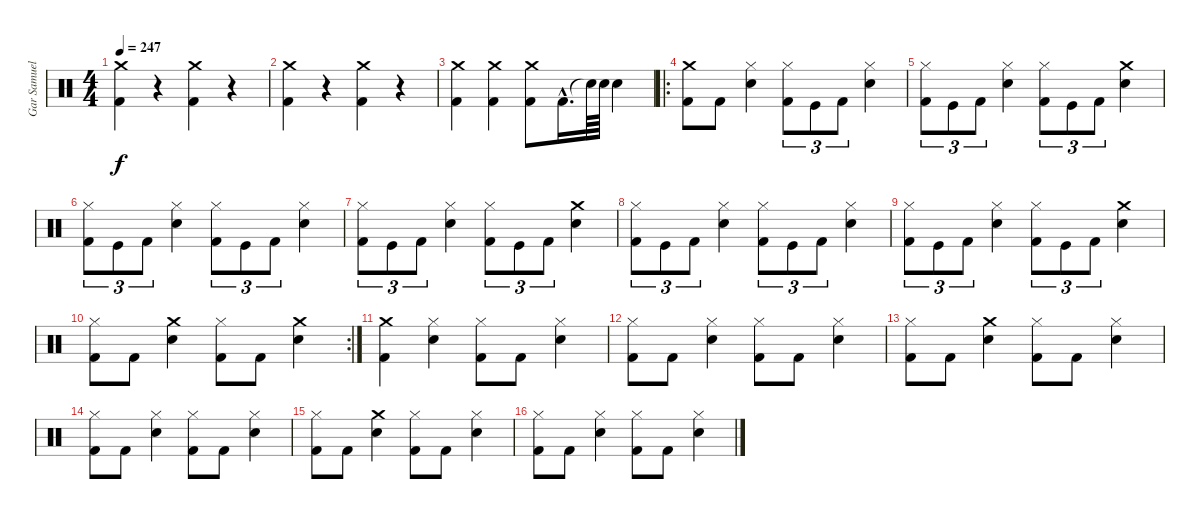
\track ("Gar Samuelson (Drums)" "Gar Samuel") {instrument percussion}
\staff {score}
\articulation defaults
\ts (4 4)
\tempo 247
\clef neutral
\ks c
("Kick (hit) 2" "Crash medium (hit)").4{dy f} r.4 ("Kick (hit) 2" "Crash medium (hit)").4 r.4 |
("Kick (hit) 2" "Crash medium (hit)").4 r.4 ("Kick (hit) 2" "Crash medium (hit)").4 r.4 |
("Kick (hit) 2" "Crash medium (hit)").4 ("Kick (hit) 2" "Crash medium (hit)").4 ("Kick (hit) 2" "Crash medium (hit)").8 "Kick (hit) 2"{hac}.16{d} "Snare (hit)"{t}.64 "Snare (hit) 2".64 "Snare (hit) 2".4 |
\ro
("Crash medium (hit)" "Kick (hit) 2").8 "Kick (hit) 2".8 ("Snare (hit) 2" "Hi-Hat (closed)").4 ("Hi-Hat (closed)" "Kick (hit) 2").8{tu (3 2)} "Kick (hit)".8{tu (3 2)} "Kick (hit) 2".8{tu (3 2)} ("Hi-Hat (closed)" "Snare (hit) 2").4 |
("Hi-Hat (closed)" "Kick (hit) 2").8{tu (3 2)} "Kick (hit)".8{tu (3 2)} "Kick (hit) 2".8{tu (3 2)} ("Snare (hit) 2" "Hi-Hat (closed)").4 ("Hi-Hat (closed)" "Kick (hit) 2").8{tu (3 2)} "Kick (hit)".8{tu (3 2)} "Kick (hit) 2".8{tu (3 2)} ("Crash medium (hit)" "Snare (hit) 2").4 |
("Hi-Hat (closed)" "Kick (hit) 2").8{tu (3 2)} "Kick (hit)".8{tu (3 2)} "Kick (hit) 2".8{tu (3 2)} ("Snare (hit) 2" "Hi-Hat (closed)").4 ("Hi-Hat (closed)" "Kick (hit) 2").8{tu (3 2)} "Kick (hit)".8{tu (3 2)} "Kick (hit) 2".8{tu (3 2)} ("Hi-Hat (closed)" "Snare (hit) 2").4 |
("Hi-Hat (closed)" "Kick (hit) 2").8{tu (3 2)} "Kick (hit)".8{tu (3 2)} "Kick (hit) 2".8{tu (3 2)} ("Snare (hit) 2" "Hi-Hat (closed)").4 ("Hi-Hat (closed)" "Kick (hit) 2").8{tu (3 2)} "Kick (hit)".8{tu (3 2)} "Kick (hit) 2".8{tu (3 2)} ("Crash medium (hit)" "Snare (hit) 2").4 |
("Hi-Hat (closed)" "Kick (hit) 2").8{tu (3 2)} "Kick (hit)".8{tu (3 2)} "Kick (hit) 2".8{tu (3 2)} ("Snare (hit) 2" "Hi-Hat (closed)").4 ("Hi-Hat (closed)" "Kick (hit) 2").8{tu (3 2)} "Kick (hit)".8{tu (3 2)} "Kick (hit) 2".8{tu (3 2)} ("Hi-Hat (closed)" "Snare (hit) 2").4 |
("Hi-Hat (closed)" "Kick (hit) 2").8{tu (3 2)} "Kick (hit)".8{tu (3 2)} "Kick (hit) 2".8{tu (3 2)} ("Snare (hit) 2" "Hi-Hat (closed)").4 ("Hi-Hat (closed)" "Kick (hit) 2").8{tu (3 2)} "Kick (hit)".8{tu (3 2)} "Kick (hit) 2".8{tu (3 2)} ("Crash medium (hit)" "Snare (hit) 2").4 |
\rc 2
("Kick (hit) 2" "Hi-Hat (closed)").8 "Kick (hit) 2".8 ("Crash medium (hit)" "Snare (hit) 2").4 ("Kick (hit) 2" "Hi-Hat (closed)").8 "Kick (hit) 2".8 ("Crash medium (hit)" "Snare (hit) 2").4 |
("Kick (hit) 2" "Crash medium (hit)").4 ("Hi-Hat (closed)" "Snare (hit) 2").4 ("Hi-Hat (closed)" "Kick (hit) 2").8 "Kick (hit) 2".8 ("Snare (hit) 2" "Hi-Hat (closed)").4 |
("Kick (hit) 2" "Hi-Hat (closed)").8 "Kick (hit) 2".8 ("Snare (hit) 2" "Hi-Hat (closed)").4 ("Kick (hit) 2" "Hi-Hat (closed)").8 "Kick (hit) 2".8 ("Snare (hit) 2" "Hi-Hat (closed)").4 |
("Kick (hit) 2" "Hi-Hat (closed)").8 "Kick (hit) 2".8 ("Crash medium (hit)" "Snare (hit) 2").4 ("Kick (hit) 2" "Hi-Hat (closed)").8 "Kick (hit) 2".8 ("Snare (hit) 2" "Hi-Hat (closed)").4 |
("Kick (hit) 2" "Hi-Hat (closed)").8 "Kick (hit) 2".8 ("Snare (hit) 2" "Hi-Hat (closed)").4 ("Kick (hit) 2" "Hi-Hat (closed)").8 "Kick (hit) 2".8 ("Snare (hit) 2" "Hi-Hat (closed)").4 |
("Kick (hit) 2" "Hi-Hat (closed)").8 "Kick (hit) 2".8 ("Crash medium (hit)" "Snare (hit) 2").4 ("Kick (hit) 2" "Hi-Hat (closed)").8 "Kick (hit) 2".8 ("Snare (hit) 2" "Hi-Hat (closed)").4 |
("Kick (hit) 2" "Hi-Hat (closed)").8 "Kick (hit) 2".8 ("Snare (hit) 2" "Hi-Hat (closed)").4 ("Kick (hit) 2" "Hi-Hat (closed)").8 "Kick (hit) 2".8 ("Snare (hit) 2" "Hi-Hat (closed)").4
